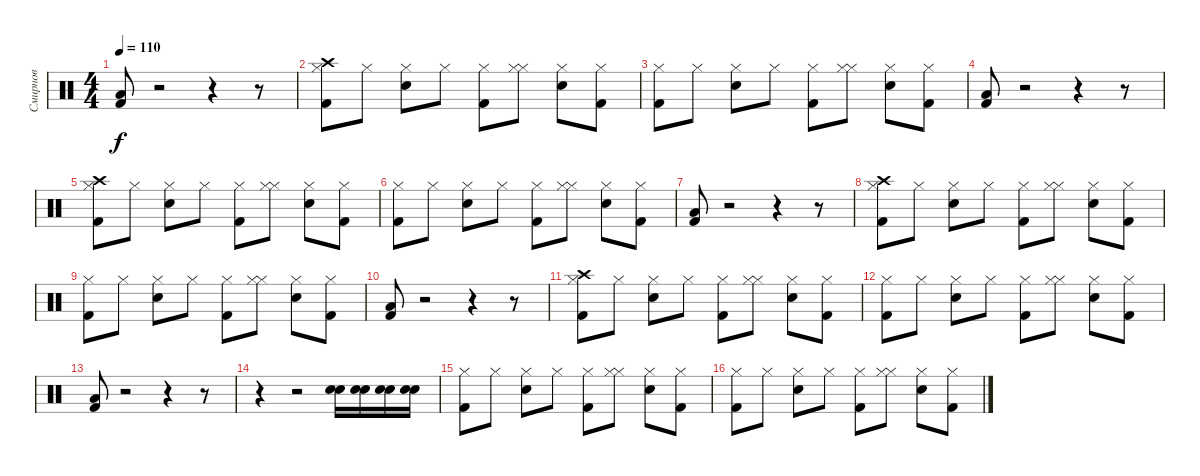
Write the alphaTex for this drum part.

\track ("Смирнов" "Смирнов") {instrument percussion}
\staff {score}
\articulation defaults
\ts (4 4)
\tempo 110
\clef neutral
\ks c
("Kick (hit) 2" "Low Floor Tom (hit)").8{dy f} r.2 r.4 r.8 |
("Kick (hit) 2" "Hi-Hat (closed)" "Crash high (hit)").8 "Hi-Hat (closed)".8 ("Snare (hit) 2" "Hi-Hat (closed)").8 "Hi-Hat (closed)".8 ("Kick (hit) 2" "Hi-Hat (closed)").8 ("Hi-Hat (closed)" "Hi-Hat (closed)").8 ("Snare (hit) 2" "Hi-Hat (closed)").8 ("Kick (hit) 2" "Hi-Hat (closed)").8 |
("Kick (hit) 2" "Hi-Hat (closed)").8 "Hi-Hat (closed)".8 ("Snare (hit) 2" "Hi-Hat (closed)").8 "Hi-Hat (closed)".8 ("Kick (hit) 2" "Hi-Hat (closed)").8 ("Hi-Hat (closed)" "Hi-Hat (closed)").8 ("Snare (hit) 2" "Hi-Hat (closed)").8 ("Kick (hit) 2" "Hi-Hat (closed)").8 |
("Kick (hit) 2" "Low Floor Tom (hit)").8 r.2 r.4 r.8 |
("Kick (hit) 2" "Hi-Hat (closed)" "Crash high (hit)").8 "Hi-Hat (closed)".8 ("Snare (hit) 2" "Hi-Hat (closed)").8 "Hi-Hat (closed)".8 ("Kick (hit) 2" "Hi-Hat (closed)").8 ("Hi-Hat (closed)" "Hi-Hat (closed)").8 ("Snare (hit) 2" "Hi-Hat (closed)").8 ("Kick (hit) 2" "Hi-Hat (closed)").8 |
("Kick (hit) 2" "Hi-Hat (closed)").8 "Hi-Hat (closed)".8 ("Snare (hit) 2" "Hi-Hat (closed)").8 "Hi-Hat (closed)".8 ("Kick (hit) 2" "Hi-Hat (closed)").8 ("Hi-Hat (closed)" "Hi-Hat (closed)").8 ("Snare (hit) 2" "Hi-Hat (closed)").8 ("Kick (hit) 2" "Hi-Hat (closed)").8 |
("Kick (hit) 2" "Low Floor Tom (hit)").8 r.2 r.4 r.8 |
("Kick (hit) 2" "Hi-Hat (closed)" "Crash high (hit)").8 "Hi-Hat (closed)".8 ("Snare (hit) 2" "Hi-Hat (closed)").8 "Hi-Hat (closed)".8 ("Kick (hit) 2" "Hi-Hat (closed)").8 ("Hi-Hat (closed)" "Hi-Hat (closed)").8 ("Snare (hit) 2" "Hi-Hat (closed)").8 ("Kick (hit) 2" "Hi-Hat (closed)").8 |
("Kick (hit) 2" "Hi-Hat (closed)").8 "Hi-Hat (closed)".8 ("Snare (hit) 2" "Hi-Hat (closed)").8 "Hi-Hat (closed)".8 ("Kick (hit) 2" "Hi-Hat (closed)").8 ("Hi-Hat (closed)" "Hi-Hat (closed)").8 ("Snare (hit) 2" "Hi-Hat (closed)").8 ("Kick (hit) 2" "Hi-Hat (closed)").8 |
("Kick (hit) 2" "Low Floor Tom (hit)").8 r.2 r.4 r.8 |
("Kick (hit) 2" "Hi-Hat (closed)" "Crash high (hit)").8 "Hi-Hat (closed)".8 ("Snare (hit) 2" "Hi-Hat (closed)").8 "Hi-Hat (closed)".8 ("Kick (hit) 2" "Hi-Hat (closed)").8 ("Hi-Hat (closed)" "Hi-Hat (closed)").8 ("Snare (hit) 2" "Hi-Hat (closed)").8 ("Kick (hit) 2" "Hi-Hat (closed)").8 |
("Kick (hit) 2" "Hi-Hat (closed)").8 "Hi-Hat (closed)".8 ("Snare (hit) 2" "Hi-Hat (closed)").8 "Hi-Hat (closed)".8 ("Kick (hit) 2" "Hi-Hat (closed)").8 ("Hi-Hat (closed)" "Hi-Hat (closed)").8 ("Snare (hit) 2" "Hi-Hat (closed)").8 ("Kick (hit) 2" "Hi-Hat (closed)").8 |
("Kick (hit) 2" "Low Floor Tom (hit)").8 r.2 r.4 r.8 |
r.4 r.2 ("Snare (hit) 2" "Electric Snare (hit)").16 ("Snare (hit) 2" "Electric Snare (hit)").16 ("Snare (hit) 2" "Electric Snare (hit)").16 ("Snare (hit) 2" "Electric Snare (hit)").16 |
("Kick (hit) 2" "Hi-Hat (closed)").8 "Hi-Hat (closed)".8 ("Snare (hit) 2" "Hi-Hat (closed)").8 "Hi-Hat (closed)".8 ("Kick (hit) 2" "Hi-Hat (closed)").8 ("Hi-Hat (closed)" "Hi-Hat (closed)").8 ("Snare (hit) 2" "Hi-Hat (closed)").8 ("Kick (hit) 2" "Hi-Hat (closed)").8 |
("Kick (hit) 2" "Hi-Hat (closed)").8 "Hi-Hat (closed)".8 ("Snare (hit) 2" "Hi-Hat (closed)").8 "Hi-Hat (closed)".8 ("Kick (hit) 2" "Hi-Hat (closed)").8 ("Hi-Hat (closed)" "Hi-Hat (closed)").8 ("Snare (hit) 2" "Hi-Hat (closed)").8 ("Kick (hit) 2" "Hi-Hat (closed)").8
